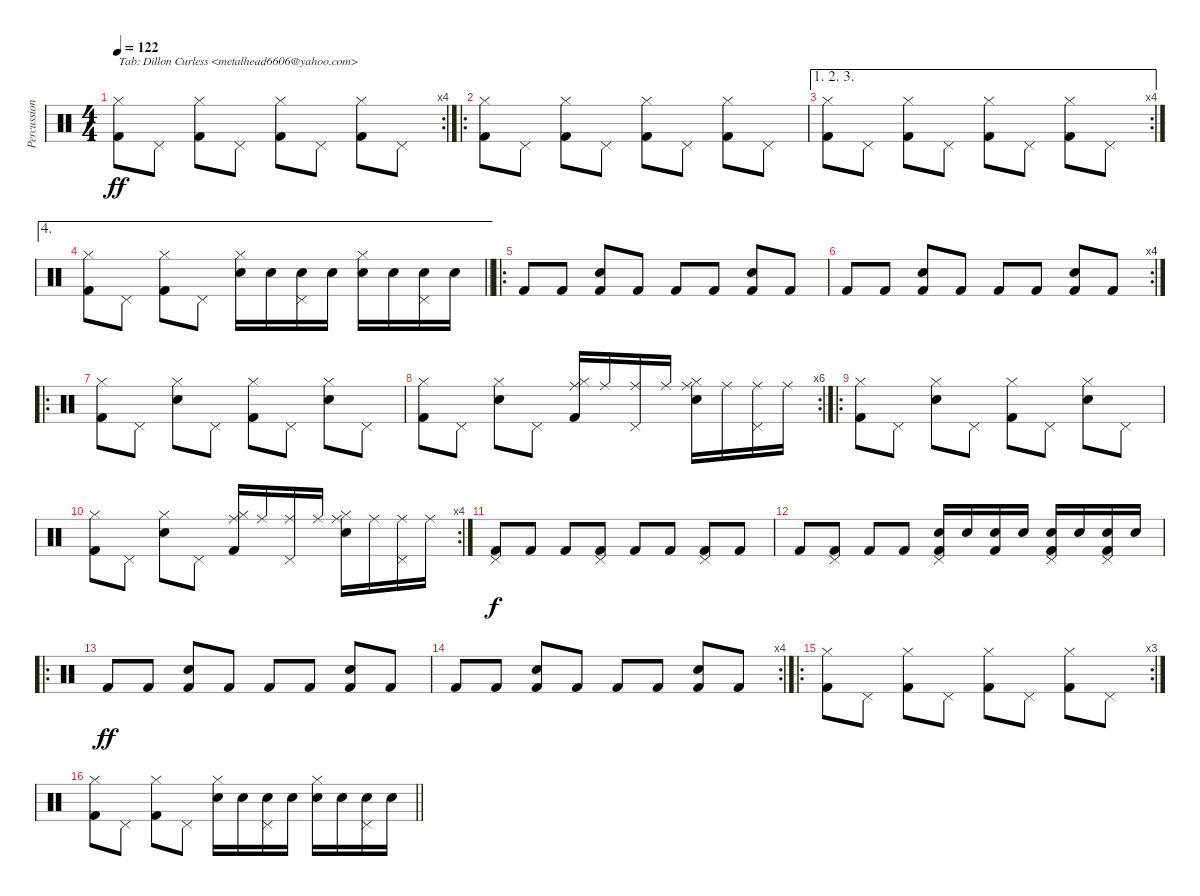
\track ("Percussion" "Percussion") {instrument percussion}
\staff {score}
\articulation defaults
\rc 4
\ts (4 4)
\tempo 122
\clef neutral
\ks c
("Kick (hit) 2" "Hi-Hat (closed)").8{txt "Tab: Dillon Curless <metalhead6606@yahoo.com>" dy ff} "Pedal Hi-Hat (hit)".8 ("Kick (hit) 2" "Hi-Hat (closed)").8 "Pedal Hi-Hat (hit)".8 ("Kick (hit) 2" "Hi-Hat (closed)").8 "Pedal Hi-Hat (hit)".8 ("Kick (hit) 2" "Hi-Hat (closed)").8 "Pedal Hi-Hat (hit)".8 |
\ro
("Kick (hit) 2" "Hi-Hat (closed)").8 "Pedal Hi-Hat (hit)".8 ("Kick (hit) 2" "Hi-Hat (closed)").8 "Pedal Hi-Hat (hit)".8 ("Kick (hit) 2" "Hi-Hat (closed)").8 "Pedal Hi-Hat (hit)".8 ("Kick (hit) 2" "Hi-Hat (closed)").8 "Pedal Hi-Hat (hit)".8 |
\ae (1 2 3)
\rc 4
("Kick (hit) 2" "Hi-Hat (closed)").8 "Pedal Hi-Hat (hit)".8 ("Kick (hit) 2" "Hi-Hat (closed)").8 "Pedal Hi-Hat (hit)".8 ("Kick (hit) 2" "Hi-Hat (closed)").8 "Pedal Hi-Hat (hit)".8 ("Kick (hit) 2" "Hi-Hat (closed)").8 "Pedal Hi-Hat (hit)".8 |
\ae 4
\barLineRight lightlight
("Kick (hit) 2" "Hi-Hat (closed)").8 "Pedal Hi-Hat (hit)".8 ("Kick (hit) 2" "Hi-Hat (closed)").8 "Pedal Hi-Hat (hit)".8 ("Snare (hit) 2" "Hi-Hat (closed)").16 "Snare (hit) 2".16 ("Snare (hit) 2" "Pedal Hi-Hat (hit)").16 "Snare (hit) 2".16 ("Snare (hit) 2" "Hi-Hat (closed)").16 "Snare (hit) 2".16 ("Snare (hit) 2" "Pedal Hi-Hat (hit)").16 "Snare (hit) 2".16 |
\ro "Kick (hit) 2".8 "Kick (hit) 2".8
("Snare (hit) 2" "Kick (hit) 2").8 "Kick (hit) 2".8 "Kick (hit) 2".8 "Kick (hit) 2".8 ("Snare (hit) 2" "Kick (hit) 2").8 "Kick (hit) 2".8 |
\rc 4 "Kick (hit) 2".8 "Kick (hit) 2".8
("Snare (hit) 2" "Kick (hit) 2").8 "Kick (hit) 2".8 "Kick (hit) 2".8 "Kick (hit) 2".8 ("Snare (hit) 2" "Kick (hit) 2").8 "Kick (hit) 2".8 |
\ro
("Kick (hit) 2" "Hi-Hat (closed)").8 "Pedal Hi-Hat (hit)".8 ("Snare (hit) 2" "Hi-Hat (closed)").8 "Pedal Hi-Hat (hit)".8 ("Kick (hit) 2" "Hi-Hat (closed)").8 "Pedal Hi-Hat (hit)".8 ("Snare (hit) 2" "Hi-Hat (closed)").8 "Pedal Hi-Hat (hit)".8 |
\rc 6
("Kick (hit) 2" "Hi-Hat (closed)").8 "Pedal Hi-Hat (hit)".8 ("Snare (hit) 2" "Hi-Hat (closed)").8 "Pedal Hi-Hat (hit)".8 ("Ride (middle)" "Kick (hit) 2" "Hi-Hat (closed)").16 "Ride (middle)".16 ("Ride (middle)" "Pedal Hi-Hat (hit)").16 "Ride (middle)".16 ("Ride (middle)" "Snare (hit) 2" "Hi-Hat (closed)").16 "Ride (middle)".16 ("Ride (middle)" "Pedal Hi-Hat (hit)").16 "Ride (middle)".16 |
\ro
("Kick (hit) 2" "Hi-Hat (closed)").8 "Pedal Hi-Hat (hit)".8 ("Snare (hit) 2" "Hi-Hat (closed)").8 "Pedal Hi-Hat (hit)".8 ("Kick (hit) 2" "Hi-Hat (closed)").8 "Pedal Hi-Hat (hit)".8 ("Snare (hit) 2" "Hi-Hat (closed)").8 "Pedal Hi-Hat (hit)".8 |
\rc 4
("Kick (hit) 2" "Hi-Hat (closed)").8 "Pedal Hi-Hat (hit)".8 ("Snare (hit) 2" "Hi-Hat (closed)").8 "Pedal Hi-Hat (hit)".8 ("Ride (middle)" "Kick (hit) 2" "Hi-Hat (closed)").16 "Ride (middle)".16 ("Ride (middle)" "Pedal Hi-Hat (hit)").16 "Ride (middle)".16 ("Ride (middle)" "Snare (hit) 2" "Hi-Hat (closed)").16 "Ride (middle)".16 ("Ride (middle)" "Pedal Hi-Hat (hit)").16 "Ride (middle)".16 |
("Pedal Hi-Hat (hit)" "Kick (hit) 2").8{dy f} "Kick (hit) 2".8 "Kick (hit) 2".8 ("Pedal Hi-Hat (hit)" "Kick (hit) 2").8 "Kick (hit) 2".8 "Kick (hit) 2".8 ("Pedal Hi-Hat (hit)" "Kick (hit) 2").8 "Kick (hit) 2".8 |
"Kick (hit) 2".8 ("Pedal Hi-Hat (hit)" "Kick (hit) 2").8 "Kick (hit) 2".8 "Kick (hit) 2".8 ("Pedal Hi-Hat (hit)" "Kick (hit) 2" "Snare (hit) 2").16 "Snare (hit) 2".16 ("Kick (hit) 2" "Snare (hit) 2").16 "Snare (hit) 2".16 ("Pedal Hi-Hat (hit)" "Kick (hit) 2" "Snare (hit) 2").16 "Snare (hit) 2".16 ("Pedal Hi-Hat (hit)" "Kick (hit) 2" "Snare (hit) 2").16 "Snare (hit) 2".16 |
\ro "Kick (hit) 2".8{dy ff} "Kick (hit) 2".8
("Snare (hit) 2" "Kick (hit) 2").8 "Kick (hit) 2".8 "Kick (hit) 2".8 "Kick (hit) 2".8 ("Snare (hit) 2" "Kick (hit) 2").8 "Kick (hit) 2".8 |
\rc 4 "Kick (hit) 2".8 "Kick (hit) 2".8
("Snare (hit) 2" "Kick (hit) 2").8 "Kick (hit) 2".8 "Kick (hit) 2".8 "Kick (hit) 2".8 ("Snare (hit) 2" "Kick (hit) 2").8 "Kick (hit) 2".8 |
\ro
\rc 3
("Kick (hit) 2" "Hi-Hat (closed)").8 "Pedal Hi-Hat (hit)".8 ("Kick (hit) 2" "Hi-Hat (closed)").8 "Pedal Hi-Hat (hit)".8 ("Kick (hit) 2" "Hi-Hat (closed)").8 "Pedal Hi-Hat (hit)".8 ("Kick (hit) 2" "Hi-Hat (closed)").8 "Pedal Hi-Hat (hit)".8 |
\barLineRight lightlight
("Kick (hit) 2" "Hi-Hat (closed)").8 "Pedal Hi-Hat (hit)".8 ("Kick (hit) 2" "Hi-Hat (closed)").8 "Pedal Hi-Hat (hit)".8 ("Snare (hit) 2" "Hi-Hat (closed)").16 "Snare (hit) 2".16 ("Snare (hit) 2" "Pedal Hi-Hat (hit)").16 "Snare (hit) 2".16 ("Snare (hit) 2" "Hi-Hat (closed)").16 "Snare (hit) 2".16 ("Snare (hit) 2" "Pedal Hi-Hat (hit)").16 "Snare (hit) 2".16
